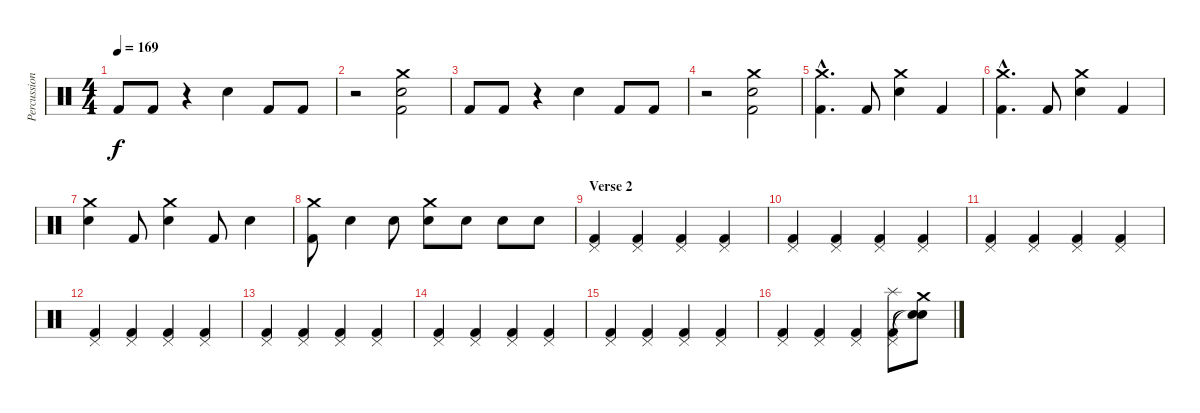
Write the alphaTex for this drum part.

\track ("Percussion" "Percussion") {instrument percussion}
\staff {score}
\articulation defaults
\ts (4 4)
\tempo 169
\clef neutral
\ks c "Kick (hit) 2".8{dy f} "Kick (hit) 2".8
r.4 "Snare (hit) 2".4 "Kick (hit) 2".8 "Kick (hit) 2".8 |
r.2 ("Snare (hit) 2" "Kick (hit) 2" "Crash medium (hit)").2 |
"Kick (hit) 2".8 "Kick (hit) 2".8 r.4 "Snare (hit) 2".4 "Kick (hit) 2".8 "Kick (hit) 2".8 |
r.2 ("Snare (hit) 2" "Kick (hit) 2" "Crash medium (hit)").2 |
("Crash medium (hit)"{hac} "Kick (hit) 2"{hac}).4{d} "Kick (hit) 2".8 ("Crash medium (hit)" "Snare (hit) 2").4 "Kick (hit) 2".4 |
("Crash medium (hit)"{hac} "Kick (hit) 2"{hac}).4{d} "Kick (hit) 2".8 ("Crash medium (hit)" "Snare (hit) 2").4 "Kick (hit) 2".4 |
("Crash medium (hit)" "Snare (hit) 2").4 "Kick (hit) 2".8 ("Crash medium (hit)" "Snare (hit) 2").4 "Kick (hit) 2".8 "Snare (hit) 2".4 |
("Crash medium (hit)" "Kick (hit) 2").8 "Snare (hit) 2".4 "Snare (hit) 2".8 ("Crash medium (hit)" "Snare (hit) 2").8 "Snare (hit) 2".8 "Snare (hit) 2".8 "Snare (hit) 2".8 |
\section ("" "Verse 2")
("Kick (hit) 2" "Pedal Hi-Hat (hit)").4 ("Kick (hit) 2" "Pedal Hi-Hat (hit)").4 ("Kick (hit) 2" "Pedal Hi-Hat (hit)").4 ("Kick (hit) 2" "Pedal Hi-Hat (hit)").4 |
("Kick (hit) 2" "Pedal Hi-Hat (hit)").4 ("Kick (hit) 2" "Pedal Hi-Hat (hit)").4 ("Kick (hit) 2" "Pedal Hi-Hat (hit)").4 ("Kick (hit) 2" "Pedal Hi-Hat (hit)").4 |
("Kick (hit) 2" "Pedal Hi-Hat (hit)").4 ("Kick (hit) 2" "Pedal Hi-Hat (hit)").4 ("Kick (hit) 2" "Pedal Hi-Hat (hit)").4 ("Kick (hit) 2" "Pedal Hi-Hat (hit)").4 |
("Kick (hit) 2" "Pedal Hi-Hat (hit)").4 ("Kick (hit) 2" "Pedal Hi-Hat (hit)").4 ("Kick (hit) 2" "Pedal Hi-Hat (hit)").4 ("Kick (hit) 2" "Pedal Hi-Hat (hit)").4 |
("Kick (hit) 2" "Pedal Hi-Hat (hit)").4 ("Kick (hit) 2" "Pedal Hi-Hat (hit)").4 ("Kick (hit) 2" "Pedal Hi-Hat (hit)").4 ("Kick (hit) 2" "Pedal Hi-Hat (hit)").4 |
("Kick (hit) 2" "Pedal Hi-Hat (hit)").4 ("Kick (hit) 2" "Pedal Hi-Hat (hit)").4 ("Kick (hit) 2" "Pedal Hi-Hat (hit)").4 ("Kick (hit) 2" "Pedal Hi-Hat (hit)").4 |
("Kick (hit) 2" "Pedal Hi-Hat (hit)").4 ("Kick (hit) 2" "Pedal Hi-Hat (hit)").4 ("Kick (hit) 2" "Pedal Hi-Hat (hit)").4 ("Kick (hit) 2" "Pedal Hi-Hat (hit)").4 |
("Kick (hit) 2" "Pedal Hi-Hat (hit)").4 ("Kick (hit) 2" "Pedal Hi-Hat (hit)").4 ("Kick (hit) 2" "Pedal Hi-Hat (hit)").4 ("Kick (hit) 2" "Pedal Hi-Hat (hit)" "Splash (hit)").8 ("Snare (hit)"{t} "Snare (hit)"{t} "Crash medium (hit)").8
